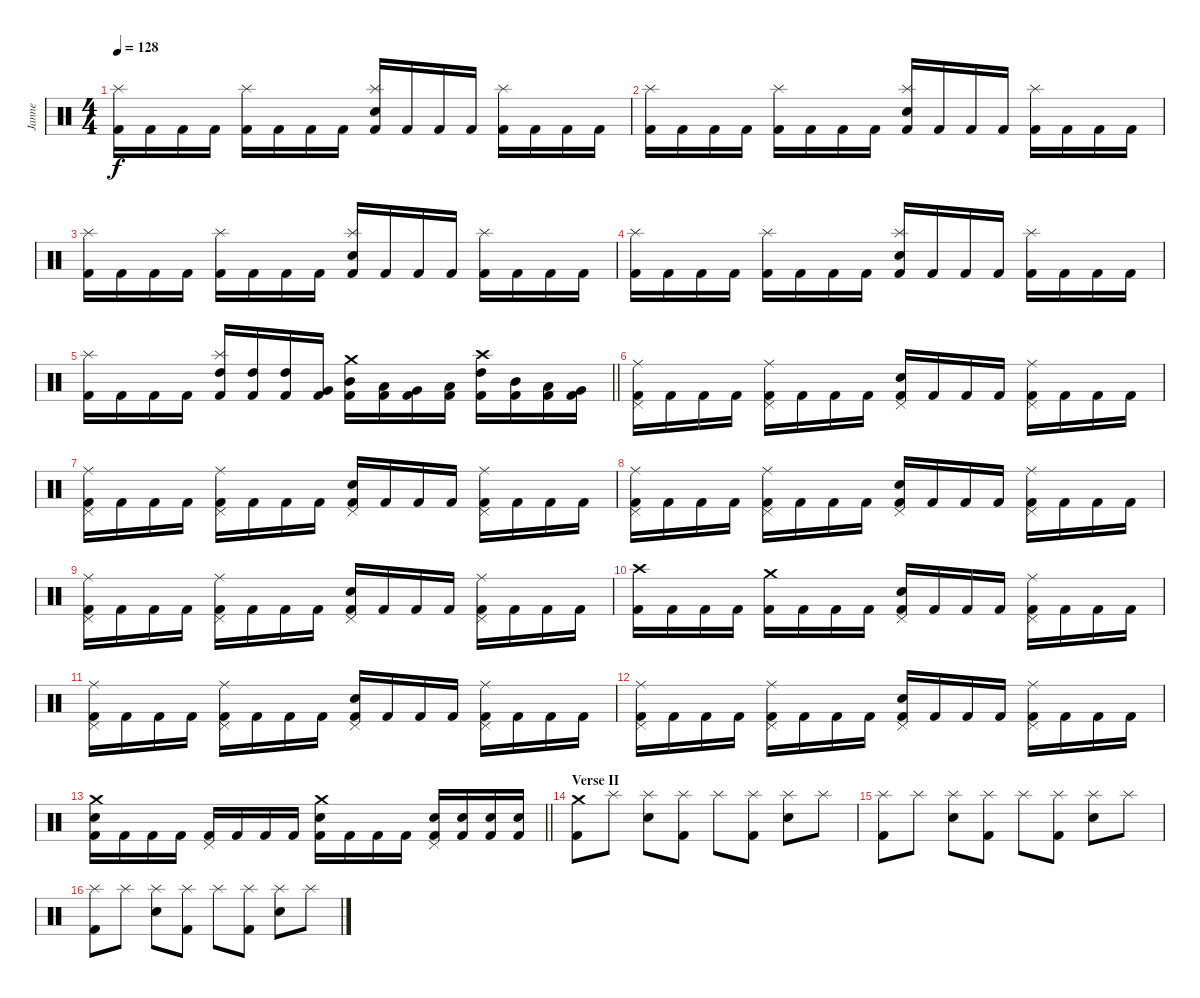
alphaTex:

\track ("Janne" "Janne") {instrument percussion}
\staff {score}
\articulation defaults
\ts (4 4)
\tempo 128
\clef neutral
\ks c
("Kick (hit) 2" "Splash (hit)").16{dy f} "Kick (hit) 2".16 "Kick (hit) 2".16 "Kick (hit) 2".16 ("Kick (hit) 2" "Splash (hit)").16 "Kick (hit) 2".16 "Kick (hit) 2".16 "Kick (hit) 2".16 ("Kick (hit) 2" "Snare (hit) 2" "Splash (hit)").16 "Kick (hit) 2".16 "Kick (hit) 2".16 "Kick (hit) 2".16 ("Kick (hit) 2" "Splash (hit)").16 "Kick (hit) 2".16 "Kick (hit) 2".16 "Kick (hit) 2".16 |
("Kick (hit) 2" "Splash (hit)").16 "Kick (hit) 2".16 "Kick (hit) 2".16 "Kick (hit) 2".16 ("Kick (hit) 2" "Splash (hit)").16 "Kick (hit) 2".16 "Kick (hit) 2".16 "Kick (hit) 2".16 ("Kick (hit) 2" "Snare (hit) 2" "Splash (hit)").16 "Kick (hit) 2".16 "Kick (hit) 2".16 "Kick (hit) 2".16 ("Kick (hit) 2" "Splash (hit)").16 "Kick (hit) 2".16 "Kick (hit) 2".16 "Kick (hit) 2".16 |
("Kick (hit) 2" "Splash (hit)").16 "Kick (hit) 2".16 "Kick (hit) 2".16 "Kick (hit) 2".16 ("Kick (hit) 2" "Splash (hit)").16 "Kick (hit) 2".16 "Kick (hit) 2".16 "Kick (hit) 2".16 ("Kick (hit) 2" "Snare (hit) 2" "Splash (hit)").16 "Kick (hit) 2".16 "Kick (hit) 2".16 "Kick (hit) 2".16 ("Kick (hit) 2" "Splash (hit)").16 "Kick (hit) 2".16 "Kick (hit) 2".16 "Kick (hit) 2".16 |
("Kick (hit) 2" "Splash (hit)").16 "Kick (hit) 2".16 "Kick (hit) 2".16 "Kick (hit) 2".16 ("Kick (hit) 2" "Splash (hit)").16 "Kick (hit) 2".16 "Kick (hit) 2".16 "Kick (hit) 2".16 ("Kick (hit) 2" "Snare (hit) 2" "Splash (hit)").16 "Kick (hit) 2".16 "Kick (hit) 2".16 "Kick (hit) 2".16 ("Kick (hit) 2" "Splash (hit)").16 "Kick (hit) 2".16 "Kick (hit) 2".16 "Kick (hit) 2".16 |
\barLineRight lightlight
("Kick (hit) 2" "Splash (hit)").16 "Kick (hit) 2".16 "Kick (hit) 2".16 "Kick (hit) 2".16 ("Kick (hit) 2" "High Tom (hit)" "Splash (hit)").16 ("Kick (hit) 2" "High Tom (hit)").16 ("Kick (hit) 2" "High Tom (hit)").16 ("Kick (hit) 2" "Very Low Tom (hit)").16 ("Kick (hit) 2" "Mid Tom (hit)" "Crash medium (hit)").16 ("Kick (hit) 2" "Low Tom (hit)").16 ("Kick (hit) 2" "Very Low Tom (hit)").16 ("Kick (hit) 2" "Low Tom (hit)").16 ("Kick (hit) 2" "High Tom (hit)" "Crash high (hit)").16 ("Kick (hit) 2" "Mid Tom (hit)").16 ("Kick (hit) 2" "Low Tom (hit)").16 ("Kick (hit) 2" "Very Low Tom (hit)").16 |
\section ("" "")
("Kick (hit) 2" "Pedal Hi-Hat (hit)" "Ride (middle)").16 "Kick (hit) 2".16 "Kick (hit) 2".16 "Kick (hit) 2".16 ("Kick (hit) 2" "Pedal Hi-Hat (hit)" "Ride (middle)").16 "Kick (hit) 2".16 "Kick (hit) 2".16 "Kick (hit) 2".16 ("Kick (hit) 2" "Snare (hit) 2" "Pedal Hi-Hat (hit)").16 "Kick (hit) 2".16 "Kick (hit) 2".16 "Kick (hit) 2".16 ("Kick (hit) 2" "Pedal Hi-Hat (hit)" "Ride (middle)").16 "Kick (hit) 2".16 "Kick (hit) 2".16 "Kick (hit) 2".16 |
("Kick (hit) 2" "Pedal Hi-Hat (hit)" "Ride (middle)").16 "Kick (hit) 2".16 "Kick (hit) 2".16 "Kick (hit) 2".16 ("Kick (hit) 2" "Pedal Hi-Hat (hit)" "Ride (middle)").16 "Kick (hit) 2".16 "Kick (hit) 2".16 "Kick (hit) 2".16 ("Kick (hit) 2" "Snare (hit) 2" "Pedal Hi-Hat (hit)").16 "Kick (hit) 2".16 "Kick (hit) 2".16 "Kick (hit) 2".16 ("Kick (hit) 2" "Pedal Hi-Hat (hit)" "Ride (middle)").16 "Kick (hit) 2".16 "Kick (hit) 2".16 "Kick (hit) 2".16 |
("Kick (hit) 2" "Pedal Hi-Hat (hit)" "Ride (middle)").16 "Kick (hit) 2".16 "Kick (hit) 2".16 "Kick (hit) 2".16 ("Kick (hit) 2" "Pedal Hi-Hat (hit)" "Ride (middle)").16 "Kick (hit) 2".16 "Kick (hit) 2".16 "Kick (hit) 2".16 ("Kick (hit) 2" "Snare (hit) 2" "Pedal Hi-Hat (hit)").16 "Kick (hit) 2".16 "Kick (hit) 2".16 "Kick (hit) 2".16 ("Kick (hit) 2" "Pedal Hi-Hat (hit)" "Ride (middle)").16 "Kick (hit) 2".16 "Kick (hit) 2".16 "Kick (hit) 2".16 |
("Kick (hit) 2" "Pedal Hi-Hat (hit)" "Ride (middle)").16 "Kick (hit) 2".16 "Kick (hit) 2".16 "Kick (hit) 2".16 ("Kick (hit) 2" "Pedal Hi-Hat (hit)" "Ride (middle)").16 "Kick (hit) 2".16 "Kick (hit) 2".16 "Kick (hit) 2".16 ("Kick (hit) 2" "Snare (hit) 2" "Pedal Hi-Hat (hit)").16 "Kick (hit) 2".16 "Kick (hit) 2".16 "Kick (hit) 2".16 ("Kick (hit) 2" "Pedal Hi-Hat (hit)" "Ride (middle)").16 "Kick (hit) 2".16 "Kick (hit) 2".16 "Kick (hit) 2".16 |
("Kick (hit) 2" "Crash high (hit)").16 "Kick (hit) 2".16 "Kick (hit) 2".16 "Kick (hit) 2".16 ("Kick (hit) 2" "Crash medium (hit)").16 "Kick (hit) 2".16 "Kick (hit) 2".16 "Kick (hit) 2".16 ("Kick (hit) 2" "Snare (hit) 2" "Pedal Hi-Hat (hit)").16 "Kick (hit) 2".16 "Kick (hit) 2".16 "Kick (hit) 2".16 ("Kick (hit) 2" "Pedal Hi-Hat (hit)" "Ride (middle)").16 "Kick (hit) 2".16 "Kick (hit) 2".16 "Kick (hit) 2".16 |
("Kick (hit) 2" "Pedal Hi-Hat (hit)" "Ride (middle)").16 "Kick (hit) 2".16 "Kick (hit) 2".16 "Kick (hit) 2".16 ("Kick (hit) 2" "Pedal Hi-Hat (hit)" "Ride (middle)").16 "Kick (hit) 2".16 "Kick (hit) 2".16 "Kick (hit) 2".16 ("Kick (hit) 2" "Snare (hit) 2" "Pedal Hi-Hat (hit)").16 "Kick (hit) 2".16 "Kick (hit) 2".16 "Kick (hit) 2".16 ("Kick (hit) 2" "Pedal Hi-Hat (hit)" "Ride (middle)").16 "Kick (hit) 2".16 "Kick (hit) 2".16 "Kick (hit) 2".16 |
("Kick (hit) 2" "Pedal Hi-Hat (hit)" "Ride (middle)").16 "Kick (hit) 2".16 "Kick (hit) 2".16 "Kick (hit) 2".16 ("Kick (hit) 2" "Pedal Hi-Hat (hit)" "Ride (middle)").16 "Kick (hit) 2".16 "Kick (hit) 2".16 "Kick (hit) 2".16 ("Kick (hit) 2" "Snare (hit) 2" "Pedal Hi-Hat (hit)").16 "Kick (hit) 2".16 "Kick (hit) 2".16 "Kick (hit) 2".16 ("Kick (hit) 2" "Pedal Hi-Hat (hit)" "Ride (middle)").16 "Kick (hit) 2".16 "Kick (hit) 2".16 "Kick (hit) 2".16 |
\barLineRight lightlight
("Kick (hit) 2" "Snare (hit) 2" "Crash medium (hit)").16 "Kick (hit) 2".16 "Kick (hit) 2".16 "Kick (hit) 2".16 ("Kick (hit) 2" "Pedal Hi-Hat (hit)").16 "Kick (hit) 2".16 "Kick (hit) 2".16 "Kick (hit) 2".16 ("Kick (hit) 2" "Snare (hit) 2" "Crash medium (hit)").16 "Kick (hit) 2".16 "Kick (hit) 2".16 "Kick (hit) 2".16 ("Kick (hit) 2" "Snare (hit) 2" "Pedal Hi-Hat (hit)").16 ("Kick (hit) 2" "Snare (hit) 2").16 ("Kick (hit) 2" "Snare (hit) 2").16 ("Kick (hit) 2" "Snare (hit) 2").16 |
\section ("" "Verse II")
("Kick (hit) 2" "Crash medium (hit)").8 "Splash (hit)".8 ("Snare (hit) 2" "Splash (hit)").8 ("Kick (hit) 2" "Splash (hit)").8 "Splash (hit)".8 ("Kick (hit) 2" "Splash (hit)").8 ("Snare (hit) 2" "Splash (hit)").8 "Splash (hit)".8 |
("Kick (hit) 2" "Splash (hit)").8 "Splash (hit)".8 ("Snare (hit) 2" "Splash (hit)").8 ("Kick (hit) 2" "Splash (hit)").8 "Splash (hit)".8 ("Kick (hit) 2" "Splash (hit)").8 ("Snare (hit) 2" "Splash (hit)").8 "Splash (hit)".8 |
("Kick (hit) 2" "Splash (hit)").8 "Splash (hit)".8 ("Snare (hit) 2" "Splash (hit)").8 ("Kick (hit) 2" "Splash (hit)").8 "Splash (hit)".8 ("Kick (hit) 2" "Splash (hit)").8 ("Snare (hit) 2" "Splash (hit)").8 "Splash (hit)".8
